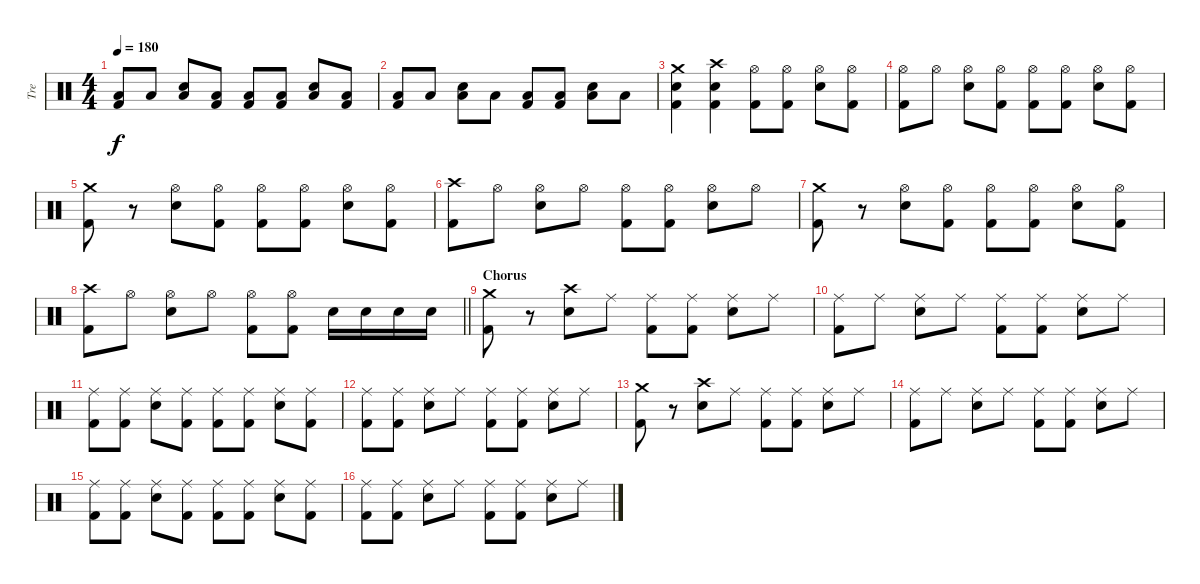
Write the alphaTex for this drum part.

\track ("Tre" "Tre") {instrument percussion}
\staff {score}
\articulation defaults
\ts (4 4)
\tempo 180
\clef neutral
\ks c
("Kick (hit) 2" "Low Floor Tom (hit)").8{dy f} "Low Floor Tom (hit)".8 ("Snare (hit) 2" "Low Floor Tom (hit)").8 ("Kick (hit) 2" "Low Floor Tom (hit)").8 ("Kick (hit) 2" "Low Floor Tom (hit)").8 ("Kick (hit) 2" "Low Floor Tom (hit)").8 ("Snare (hit) 2" "Low Floor Tom (hit)").8 ("Kick (hit) 2" "Low Floor Tom (hit)").8 |
("Kick (hit) 2" "Low Floor Tom (hit)").8 "Low Floor Tom (hit)".8 ("Snare (hit) 2" "Low Floor Tom (hit)").8 "Low Floor Tom (hit)".8 ("Kick (hit) 2" "Low Floor Tom (hit)").8 ("Kick (hit) 2" "Low Floor Tom (hit)").8 ("Snare (hit) 2" "Low Floor Tom (hit)").8 "Low Floor Tom (hit)".8 |
("Kick (hit) 2" "Snare (hit) 2" "Crash medium (hit)").4 ("Kick (hit) 2" "Snare (hit) 2" "Crash high (hit)").4 ("Kick (hit) 2" "Hi-Hat (open)").8 ("Kick (hit) 2" "Hi-Hat (open)").8 ("Snare (hit) 2" "Hi-Hat (open)").8 ("Kick (hit) 2" "Hi-Hat (open)").8 |
("Kick (hit) 2" "Hi-Hat (open)").8 "Hi-Hat (open)".8 ("Snare (hit) 2" "Hi-Hat (open)").8 ("Kick (hit) 2" "Hi-Hat (open)").8 ("Kick (hit) 2" "Hi-Hat (open)").8 ("Kick (hit) 2" "Hi-Hat (open)").8 ("Snare (hit) 2" "Hi-Hat (open)").8 ("Kick (hit) 2" "Hi-Hat (open)").8 |
("Kick (hit) 2" "Crash medium (hit)").8 r.8 ("Snare (hit) 2" "Hi-Hat (open)").8 ("Kick (hit) 2" "Hi-Hat (open)").8 ("Kick (hit) 2" "Hi-Hat (open)").8 ("Kick (hit) 2" "Hi-Hat (open)").8 ("Snare (hit) 2" "Hi-Hat (open)").8 ("Kick (hit) 2" "Hi-Hat (open)").8 |
("Kick (hit) 2" "Crash high (hit)").8 "Hi-Hat (open)".8 ("Snare (hit) 2" "Hi-Hat (open)").8 "Hi-Hat (open)".8 ("Kick (hit) 2" "Hi-Hat (open)").8 ("Kick (hit) 2" "Hi-Hat (open)").8 ("Snare (hit) 2" "Hi-Hat (open)").8 "Hi-Hat (open)".8 |
("Kick (hit) 2" "Crash medium (hit)").8 r.8 ("Snare (hit) 2" "Hi-Hat (open)").8 ("Kick (hit) 2" "Hi-Hat (open)").8 ("Kick (hit) 2" "Hi-Hat (open)").8 ("Kick (hit) 2" "Hi-Hat (open)").8 ("Snare (hit) 2" "Hi-Hat (open)").8 ("Kick (hit) 2" "Hi-Hat (open)").8 |
\barLineRight lightlight
("Kick (hit) 2" "Crash high (hit)").8 "Hi-Hat (open)".8 ("Snare (hit) 2" "Hi-Hat (open)").8 "Hi-Hat (open)".8 ("Kick (hit) 2" "Hi-Hat (open)").8 ("Kick (hit) 2" "Hi-Hat (open)").8 "Snare (hit) 2".16 "Snare (hit) 2".16 "Snare (hit) 2".16 "Snare (hit) 2".16 |
\section ("" "Chorus")
("Kick (hit) 2" "Crash medium (hit)").8 r.8 ("Snare (hit) 2" "Crash high (hit)").8 "Ride (middle)".8 ("Kick (hit) 2" "Ride (middle)").8 ("Kick (hit) 2" "Ride (middle)").8 ("Snare (hit) 2" "Ride (middle)").8 "Ride (middle)".8 |
("Kick (hit) 2" "Ride (middle)").8 "Ride (middle)".8 ("Snare (hit) 2" "Ride (middle)").8 "Ride (middle)".8 ("Kick (hit) 2" "Ride (middle)").8 ("Kick (hit) 2" "Ride (middle)").8 ("Snare (hit) 2" "Ride (middle)").8 "Ride (middle)".8 |
("Kick (hit) 2" "Ride (middle)").8 ("Kick (hit) 2" "Ride (middle)").8 ("Snare (hit) 2" "Ride (middle)").8 ("Kick (hit) 2" "Ride (middle)").8 ("Kick (hit) 2" "Ride (middle)").8 ("Kick (hit) 2" "Ride (middle)").8 ("Snare (hit) 2" "Ride (middle)").8 ("Kick (hit) 2" "Ride (middle)").8 |
("Kick (hit) 2" "Ride (middle)").8 ("Kick (hit) 2" "Ride (middle)").8 ("Snare (hit) 2" "Ride (middle)").8 "Ride (middle)".8 ("Kick (hit) 2" "Ride (middle)").8 ("Kick (hit) 2" "Ride (middle)").8 ("Snare (hit) 2" "Ride (middle)").8 "Ride (middle)".8 |
("Kick (hit) 2" "Crash medium (hit)").8 r.8 ("Snare (hit) 2" "Crash high (hit)").8 "Ride (middle)".8 ("Kick (hit) 2" "Ride (middle)").8 ("Kick (hit) 2" "Ride (middle)").8 ("Snare (hit) 2" "Ride (middle)").8 "Ride (middle)".8 |
("Kick (hit) 2" "Ride (middle)").8 "Ride (middle)".8 ("Snare (hit) 2" "Ride (middle)").8 "Ride (middle)".8 ("Kick (hit) 2" "Ride (middle)").8 ("Kick (hit) 2" "Ride (middle)").8 ("Snare (hit) 2" "Ride (middle)").8 "Ride (middle)".8 |
("Kick (hit) 2" "Ride (middle)").8 ("Kick (hit) 2" "Ride (middle)").8 ("Snare (hit) 2" "Ride (middle)").8 ("Kick (hit) 2" "Ride (middle)").8 ("Kick (hit) 2" "Ride (middle)").8 ("Kick (hit) 2" "Ride (middle)").8 ("Snare (hit) 2" "Ride (middle)").8 ("Kick (hit) 2" "Ride (middle)").8 |
("Kick (hit) 2" "Ride (middle)").8 ("Kick (hit) 2" "Ride (middle)").8 ("Snare (hit) 2" "Ride (middle)").8 "Ride (middle)".8 ("Kick (hit) 2" "Ride (middle)").8 ("Kick (hit) 2" "Ride (middle)").8 ("Snare (hit) 2" "Ride (middle)").8 "Ride (middle)".8
